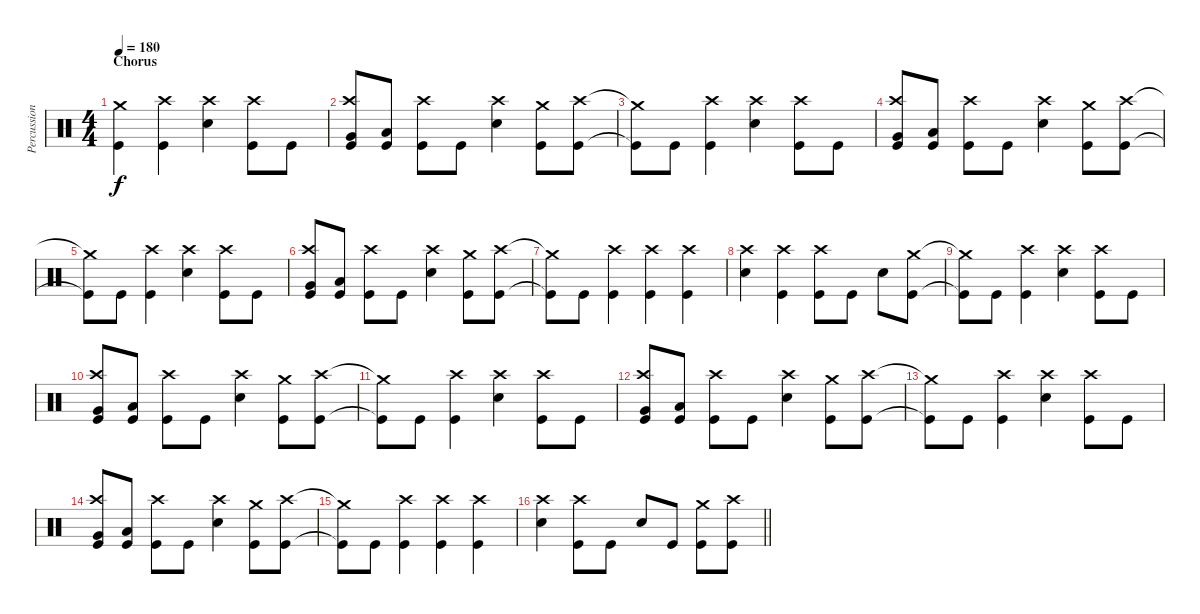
\track ("Percussion" "Percussion") {instrument percussion}
\staff {score}
\articulation defaults
\ts (4 4)
\section ("" "Chorus")
\tempo 180
\clef neutral
\ks c
("Crash medium (hit)" "Kick (hit)").4{dy f} ("Crash high (hit)" "Kick (hit)").4 ("Crash high (hit)" "Snare (hit) 2").4 ("Crash high (hit)" "Kick (hit)").8 "Kick (hit)".8 |
("Crash high (hit)" "Very Low Tom (hit)" "Kick (hit)").8 ("Low Floor Tom (hit)" "Kick (hit)").8 ("Crash high (hit)" "Kick (hit)").8 "Kick (hit)".8 ("Crash high (hit)" "Snare (hit) 2").4 ("Crash medium (hit)" "Kick (hit)").8 ("Crash high (hit)" "Kick (hit)").8 |
("Crash medium (hit)"{t} "Kick (hit)"{t}).8 "Kick (hit)".8 ("Crash high (hit)" "Kick (hit)").4 ("Crash high (hit)" "Snare (hit) 2").4 ("Crash high (hit)" "Kick (hit)").8 "Kick (hit)".8 |
("Crash high (hit)" "Very Low Tom (hit)" "Kick (hit)").8 ("Low Floor Tom (hit)" "Kick (hit)").8 ("Crash high (hit)" "Kick (hit)").8 "Kick (hit)".8 ("Crash high (hit)" "Snare (hit) 2").4 ("Crash medium (hit)" "Kick (hit)").8 ("Crash high (hit)" "Kick (hit)").8 |
("Crash medium (hit)"{t} "Kick (hit)"{t}).8 "Kick (hit)".8 ("Crash high (hit)" "Kick (hit)").4 ("Crash high (hit)" "Snare (hit) 2").4 ("Crash high (hit)" "Kick (hit)").8 "Kick (hit)".8 |
("Crash high (hit)" "Very Low Tom (hit)" "Kick (hit)").8 ("Low Floor Tom (hit)" "Kick (hit)").8 ("Crash high (hit)" "Kick (hit)").8 "Kick (hit)".8 ("Crash high (hit)" "Snare (hit) 2").4 ("Crash medium (hit)" "Kick (hit)").8 ("Crash high (hit)" "Kick (hit)").8 |
("Crash medium (hit)"{t} "Kick (hit)"{t}).8 "Kick (hit)".8 ("Crash high (hit)" "Kick (hit)").4 ("Crash high (hit)" "Kick (hit)").4 ("Crash high (hit)" "Kick (hit)").4 |
("Crash high (hit)" "Snare (hit) 2").4 ("Crash high (hit)" "Kick (hit)").4 ("Crash high (hit)" "Kick (hit)").8 "Kick (hit)".8 "Snare (hit) 2".8 ("Crash medium (hit)" "Kick (hit)").8 |
("Crash medium (hit)"{t} "Kick (hit)"{t}).8 "Kick (hit)".8 ("Crash high (hit)" "Kick (hit)").4 ("Crash high (hit)" "Snare (hit) 2").4 ("Crash high (hit)" "Kick (hit)").8 "Kick (hit)".8 |
("Crash high (hit)" "Very Low Tom (hit)" "Kick (hit)").8 ("Low Floor Tom (hit)" "Kick (hit)").8 ("Crash high (hit)" "Kick (hit)").8 "Kick (hit)".8 ("Crash high (hit)" "Snare (hit) 2").4 ("Crash medium (hit)" "Kick (hit)").8 ("Crash high (hit)" "Kick (hit)").8 |
("Crash medium (hit)"{t} "Kick (hit)"{t}).8 "Kick (hit)".8 ("Crash high (hit)" "Kick (hit)").4 ("Crash high (hit)" "Snare (hit) 2").4 ("Crash high (hit)" "Kick (hit)").8 "Kick (hit)".8 |
("Crash high (hit)" "Very Low Tom (hit)" "Kick (hit)").8 ("Low Floor Tom (hit)" "Kick (hit)").8 ("Crash high (hit)" "Kick (hit)").8 "Kick (hit)".8 ("Crash high (hit)" "Snare (hit) 2").4 ("Crash medium (hit)" "Kick (hit)").8 ("Crash high (hit)" "Kick (hit)").8 |
("Crash medium (hit)"{t} "Kick (hit)"{t}).8 "Kick (hit)".8 ("Crash high (hit)" "Kick (hit)").4 ("Crash high (hit)" "Snare (hit) 2").4 ("Crash high (hit)" "Kick (hit)").8 "Kick (hit)".8 |
("Crash high (hit)" "Very Low Tom (hit)" "Kick (hit)").8 ("Low Floor Tom (hit)" "Kick (hit)").8 ("Crash high (hit)" "Kick (hit)").8 "Kick (hit)".8 ("Crash high (hit)" "Snare (hit) 2").4 ("Crash medium (hit)" "Kick (hit)").8 ("Crash high (hit)" "Kick (hit)").8 |
("Crash medium (hit)"{t} "Kick (hit)"{t}).8 "Kick (hit)".8 ("Crash high (hit)" "Kick (hit)").4 ("Crash high (hit)" "Kick (hit)").4 ("Crash high (hit)" "Kick (hit)").4 |
\barLineRight lightlight
("Crash high (hit)" "Snare (hit) 2").4 ("Crash high (hit)" "Kick (hit)").8 "Kick (hit)".8 "Snare (hit) 2".8 "Kick (hit)".8 ("Crash medium (hit)" "Kick (hit)").8 ("Crash high (hit)" "Kick (hit)").8
